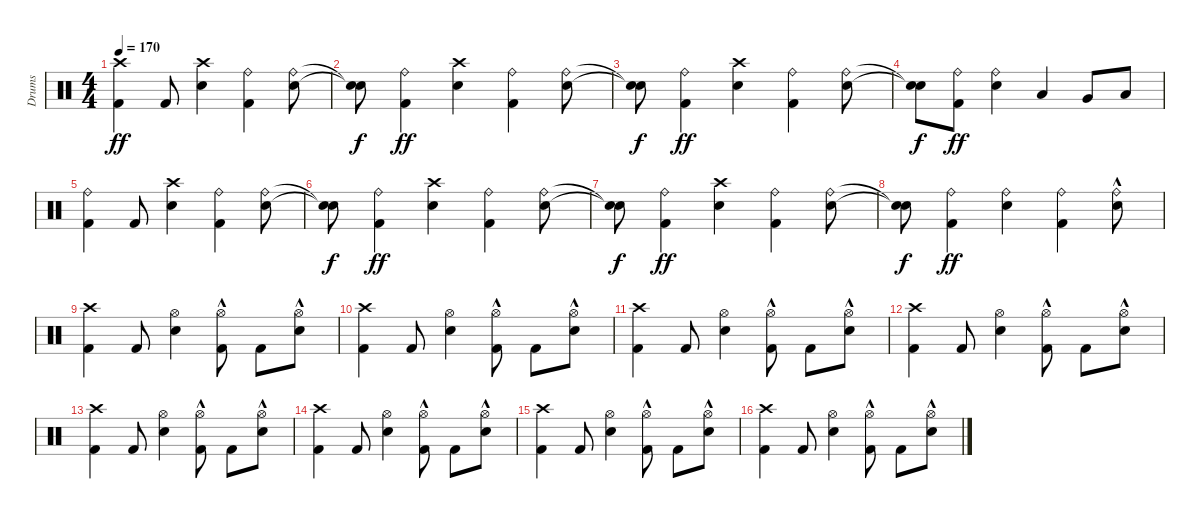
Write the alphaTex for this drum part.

\track ("Drums" "Drums") {instrument percussion}
\staff {score}
\articulation defaults
\ts (4 4)
\tempo 170
\clef neutral
\ks c
("Kick (hit) 2" "Crash high (hit)").4{dy ff} "Kick (hit) 2".8 ("Snare (hit) 2" "Crash high (hit)").4 ("Kick (hit) 2" "Ride (bell)").4 ("Snare (hit) 2" "Ride (bell)").8 |
("Snare (hit)"{t} "Snare (hit)"{t}).8{dy f} ("Kick (hit) 2" "Ride (bell)").4{dy ff} ("Snare (hit) 2" "Crash high (hit)").4 ("Kick (hit) 2" "Ride (bell)").4 ("Snare (hit) 2" "Ride (bell)").8 |
("Snare (hit)"{t} "Snare (hit)"{t}).8{dy f} ("Kick (hit) 2" "Ride (bell)").4{dy ff} ("Snare (hit) 2" "Crash high (hit)").4 ("Kick (hit) 2" "Ride (bell)").4 ("Snare (hit) 2" "Ride (bell)").8 |
("Snare (hit)"{t} "Snare (hit)"{t}).8{dy f} ("Kick (hit) 2" "Ride (bell)").8{dy ff} ("Snare (hit) 2" "Ride (bell)").4 "Low Tom (hit)".4 "Very Low Tom (hit)".8 "Low Floor Tom (hit)".8 |
("Kick (hit) 2" "Ride (bell)").4 "Kick (hit) 2".8 ("Snare (hit) 2" "Crash high (hit)").4 ("Kick (hit) 2" "Ride (bell)").4 ("Snare (hit) 2" "Ride (bell)").8 |
("Snare (hit)"{t} "Snare (hit)"{t}).8{dy f} ("Kick (hit) 2" "Ride (bell)").4{dy ff} ("Snare (hit) 2" "Crash high (hit)").4 ("Kick (hit) 2" "Ride (bell)").4 ("Snare (hit) 2" "Ride (bell)").8 |
("Snare (hit)"{t} "Snare (hit)"{t}).8{dy f} ("Kick (hit) 2" "Ride (bell)").4{dy ff} ("Snare (hit) 2" "Crash high (hit)").4 ("Kick (hit) 2" "Ride (bell)").4 ("Snare (hit) 2" "Ride (bell)").8 |
("Snare (hit)"{t} "Snare (hit)"{t}).8{dy f} ("Kick (hit) 2" "Ride (bell)").4{dy ff} ("Snare (hit) 2" "Ride (bell)").4 ("Kick (hit) 2" "Ride (bell)").4 ("Snare (hit) 2" "Ride (bell)"{hac}).8 |
("Kick (hit) 2" "Crash high (hit)").4 "Kick (hit) 2".8 ("Snare (hit) 2" "Hi-Hat (open)").4 ("Kick (hit) 2" "Hi-Hat (open)"{hac}).8 "Kick (hit) 2".8 ("Snare (hit) 2" "Hi-Hat (open)"{hac}).8 |
("Kick (hit) 2" "Crash high (hit)").4 "Kick (hit) 2".8 ("Snare (hit) 2" "Hi-Hat (open)").4 ("Kick (hit) 2" "Hi-Hat (open)"{hac}).8 "Kick (hit) 2".8 ("Snare (hit) 2" "Hi-Hat (open)"{hac}).8 |
("Kick (hit) 2" "Crash high (hit)").4 "Kick (hit) 2".8 ("Snare (hit) 2" "Hi-Hat (open)").4 ("Kick (hit) 2" "Hi-Hat (open)"{hac}).8 "Kick (hit) 2".8 ("Snare (hit) 2" "Hi-Hat (open)"{hac}).8 |
("Kick (hit) 2" "Crash high (hit)").4 "Kick (hit) 2".8 ("Snare (hit) 2" "Hi-Hat (open)").4 ("Kick (hit) 2" "Hi-Hat (open)"{hac}).8 "Kick (hit) 2".8 ("Snare (hit) 2" "Hi-Hat (open)"{hac}).8 |
("Kick (hit) 2" "Crash high (hit)").4 "Kick (hit) 2".8 ("Snare (hit) 2" "Hi-Hat (open)").4 ("Kick (hit) 2" "Hi-Hat (open)"{hac}).8 "Kick (hit) 2".8 ("Snare (hit) 2" "Hi-Hat (open)"{hac}).8 |
("Kick (hit) 2" "Crash high (hit)").4 "Kick (hit) 2".8 ("Snare (hit) 2" "Hi-Hat (open)").4 ("Kick (hit) 2" "Hi-Hat (open)"{hac}).8 "Kick (hit) 2".8 ("Snare (hit) 2" "Hi-Hat (open)"{hac}).8 |
("Kick (hit) 2" "Crash high (hit)").4 "Kick (hit) 2".8 ("Snare (hit) 2" "Hi-Hat (open)").4 ("Kick (hit) 2" "Hi-Hat (open)"{hac}).8 "Kick (hit) 2".8 ("Snare (hit) 2" "Hi-Hat (open)"{hac}).8 |
("Kick (hit) 2" "Crash high (hit)").4 "Kick (hit) 2".8 ("Snare (hit) 2" "Hi-Hat (open)").4 ("Kick (hit) 2" "Hi-Hat (open)"{hac}).8 "Kick (hit) 2".8 ("Snare (hit) 2" "Hi-Hat (open)"{hac}).8
